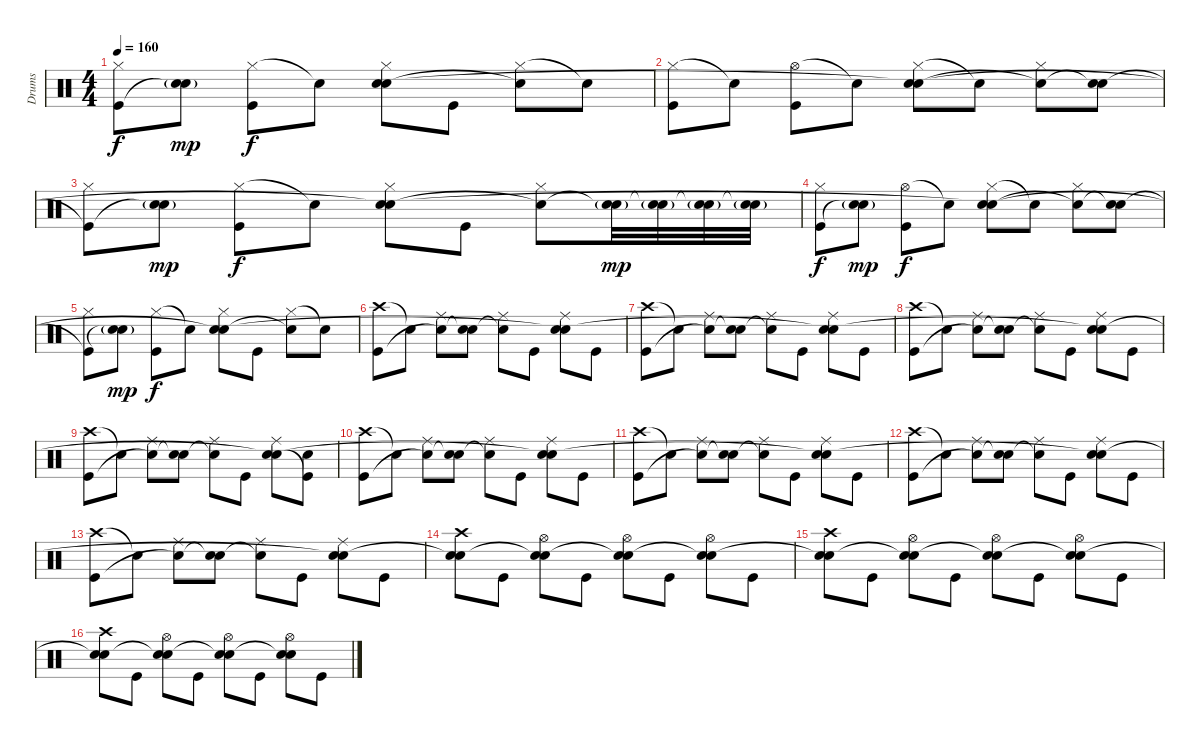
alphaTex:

\track ("Drums" "Drums") {instrument percussion}
\staff {score}
\articulation defaults
\ts (4 4)
\tempo 160
\clef neutral
\ks c
("Hi-Hat (closed)" "Kick (hit)"{t}).8{dy f} ("Electric Snare (hit)"{g} "Snare (hit)"{t}).8{dy mp} ("Hi-Hat (closed)" "Kick (hit)").8{dy f} "Snare (hit)"{t}.8 ("Hi-Hat (closed)" "Electric Snare (hit)" "Snare (hit)"{t}).8 "Kick (hit)".8 ("Hi-Hat (closed)" "Snare (hit)"{t}).8 "Snare (hit)"{t}.8 |
("Hi-Hat (closed)" "Kick (hit)").8 "Snare (hit)"{t}.8 ("Hi-Hat (open)" "Kick (hit)").8 "Snare (hit)"{t}.8 ("Hi-Hat (closed)" "Electric Snare (hit)" "Snare (hit)"{t}).8 "Snare (hit)"{t}.8 ("Hi-Hat (closed)" "Snare (hit)"{t}).8 ("Electric Snare (hit)" "Snare (hit)"{t}).8 |
("Hi-Hat (closed)" "Kick (hit)"{t}).8 ("Electric Snare (hit)"{g} "Snare (hit)"{t}).8{dy mp} ("Hi-Hat (closed)" "Kick (hit)").8{dy f} "Snare (hit)"{t}.8 ("Hi-Hat (closed)" "Electric Snare (hit)" "Snare (hit)"{t}).8 "Kick (hit)".8 ("Hi-Hat (closed)" "Snare (hit)"{t}).8 ("Electric Snare (hit)"{g} "Snare (hit)"{t}).32{dy mp} ("Electric Snare (hit)"{g} "Snare (hit)"{t}).32 ("Electric Snare (hit)"{g} "Snare (hit)"{t}).32 ("Electric Snare (hit)"{g} "Snare (hit)"{t}).32 |
("Hi-Hat (closed)" "Kick (hit)").8{dy f} ("Electric Snare (hit)"{g} "Snare (hit)"{t}).8{dy mp} ("Hi-Hat (open)" "Kick (hit)").8{dy f} "Snare (hit)"{t}.8 ("Hi-Hat (closed)" "Electric Snare (hit)" "Snare (hit)"{t}).8 "Snare (hit)"{t}.8 ("Hi-Hat (closed)" "Snare (hit)"{t}).8 ("Electric Snare (hit)" "Snare (hit)"{t}).8 |
("Hi-Hat (closed)" "Kick (hit)"{t}).8 ("Electric Snare (hit)"{g} "Snare (hit)"{t}).8{dy mp} ("Hi-Hat (closed)" "Kick (hit)").8{dy f} "Snare (hit)"{t}.8 ("Hi-Hat (closed)" "Electric Snare (hit)" "Snare (hit)"{t}).8 "Kick (hit)".8 ("Hi-Hat (closed)" "Snare (hit)"{t}).8 "Snare (hit)"{t}.8 |
("Crash high (hit)" "Kick (hit)").8 "Snare (hit)"{t}.8 ("Ride (middle)" "Snare (hit)"{t}).8 ("Electric Snare (hit)" "Snare (hit)"{t}).8 ("Ride (middle)" "Snare (hit)"{t}).8 "Kick (hit)".8 ("Ride (middle)" "Electric Snare (hit)" "Snare (hit)"{t}).8 "Kick (hit)".8 |
("Crash high (hit)" "Kick (hit)").8 "Snare (hit)"{t}.8 ("Ride (middle)" "Snare (hit)"{t}).8 ("Electric Snare (hit)" "Snare (hit)"{t}).8 ("Ride (middle)" "Snare (hit)"{t}).8 "Kick (hit)".8 ("Ride (middle)" "Electric Snare (hit)" "Snare (hit)"{t}).8 "Kick (hit)".8 |
("Crash high (hit)" "Kick (hit)").8 "Snare (hit)"{t}.8 ("Ride (middle)" "Snare (hit)"{t}).8 ("Electric Snare (hit)" "Snare (hit)"{t}).8 ("Ride (middle)" "Snare (hit)"{t}).8 "Kick (hit)".8 ("Ride (middle)" "Electric Snare (hit)" "Snare (hit)"{t}).8 "Kick (hit)".8 |
("Crash high (hit)" "Kick (hit)").8 "Snare (hit)"{t}.8 ("Ride (middle)" "Snare (hit)"{t}).8 ("Electric Snare (hit)" "Snare (hit)"{t}).8 ("Ride (middle)" "Snare (hit)"{t}).8 "Kick (hit)".8 ("Ride (middle)" "Electric Snare (hit)" "Snare (hit)"{t}).8 ("Electric Snare (hit)" "Kick (hit)"{t}).8 |
("Crash high (hit)" "Kick (hit)").8 "Snare (hit)"{t}.8 ("Ride (middle)" "Snare (hit)"{t}).8 ("Electric Snare (hit)" "Snare (hit)"{t}).8 ("Ride (middle)" "Snare (hit)"{t}).8 "Kick (hit)".8 ("Ride (middle)" "Electric Snare (hit)" "Snare (hit)"{t}).8 "Kick (hit)".8 |
("Crash high (hit)" "Kick (hit)").8 "Snare (hit)"{t}.8 ("Ride (middle)" "Snare (hit)"{t}).8 ("Electric Snare (hit)" "Snare (hit)"{t}).8 ("Ride (middle)" "Snare (hit)"{t}).8 "Kick (hit)".8 ("Ride (middle)" "Electric Snare (hit)" "Snare (hit)"{t}).8 "Kick (hit)".8 |
("Crash high (hit)" "Kick (hit)").8 "Snare (hit)"{t}.8 ("Ride (middle)" "Snare (hit)"{t}).8 ("Electric Snare (hit)" "Snare (hit)"{t}).8 ("Ride (middle)" "Snare (hit)"{t}).8 "Kick (hit)".8 ("Ride (middle)" "Electric Snare (hit)" "Snare (hit)"{t}).8 "Kick (hit)".8 |
("Crash high (hit)" "Kick (hit)").8 "Snare (hit)"{t}.8 ("Ride (middle)" "Snare (hit)"{t}).8 ("Electric Snare (hit)" "Snare (hit)"{t}).8 ("Ride (middle)" "Snare (hit)"{t}).8 "Kick (hit)".8 ("Ride (middle)" "Electric Snare (hit)" "Snare (hit)"{t}).8 "Kick (hit)".8 |
("Crash high (hit)" "Electric Snare (hit)" "Snare (hit)"{t}).8 "Kick (hit)".8 ("Hi-Hat (open)" "Electric Snare (hit)" "Snare (hit)"{t}).8 "Kick (hit)".8 ("Hi-Hat (open)" "Electric Snare (hit)" "Snare (hit)"{t}).8 "Kick (hit)".8 ("Hi-Hat (open)" "Electric Snare (hit)" "Snare (hit)"{t}).8 "Kick (hit)".8 |
("Crash high (hit)" "Electric Snare (hit)" "Snare (hit)"{t}).8 "Kick (hit)".8 ("Hi-Hat (open)" "Electric Snare (hit)" "Snare (hit)"{t}).8 "Kick (hit)".8 ("Hi-Hat (open)" "Electric Snare (hit)" "Snare (hit)"{t}).8 "Kick (hit)".8 ("Hi-Hat (open)" "Electric Snare (hit)" "Snare (hit)"{t}).8 "Kick (hit)".8 |
("Crash high (hit)" "Electric Snare (hit)" "Snare (hit)"{t}).8 "Kick (hit)".8 ("Hi-Hat (open)" "Electric Snare (hit)" "Snare (hit)"{t}).8 "Kick (hit)".8 ("Hi-Hat (open)" "Electric Snare (hit)" "Snare (hit)"{t}).8 "Kick (hit)".8 ("Hi-Hat (open)" "Electric Snare (hit)" "Snare (hit)"{t}).8 "Kick (hit)".8
